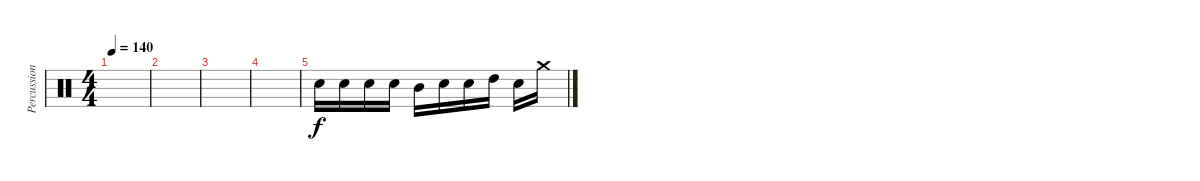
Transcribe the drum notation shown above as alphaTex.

\track ("Percussions" "Percussion") {instrument percussion}
\staff {score}
\articulation defaults
\ts (4 4)
\tempo 140
\clef neutral
\ks c
|
|
|
|
"Snare (hit) 2".16 "Snare (hit) 2".16 "Snare (hit) 2".16 "Snare (hit) 2".16 "Mid Tom (hit)".16 "Snare (hit) 2".16 "Snare (hit) 2".16 "High Tom (hit)".16 "Snare (hit) 2".16 "Crash medium (hit)".16
